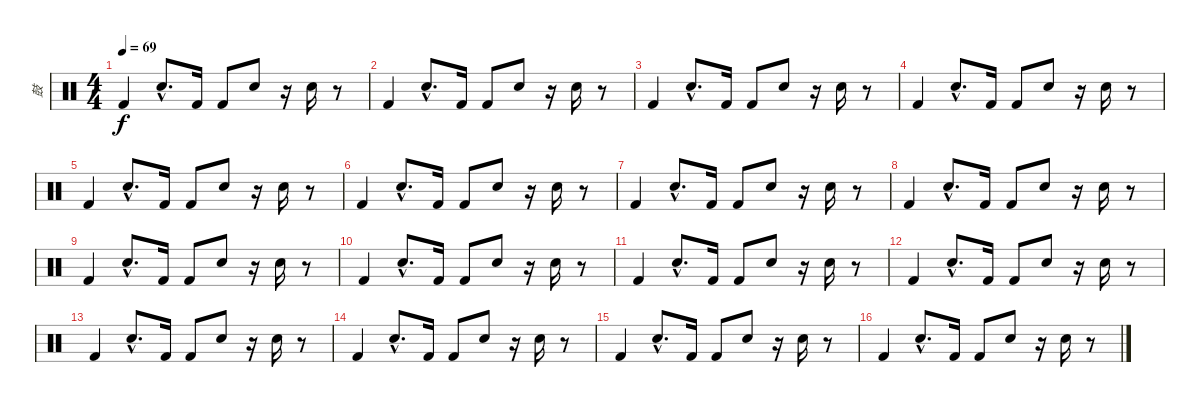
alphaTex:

\track ("鼓" "鼓") {instrument percussion}
\staff {score}
\articulation defaults
\ts (4 4)
\tempo 69
\clef neutral
\ks c "Kick (hit) 2".4{dy f} "Snare (hit) 2"{hac}.8{d} "Kick (hit) 2".16 "Kick (hit) 2".8 "Snare (hit) 2".8
r.16 "Snare (hit) 2".16 r.8 |
"Kick (hit) 2".4 "Snare (hit) 2"{hac}.8{d} "Kick (hit) 2".16 "Kick (hit) 2".8 "Snare (hit) 2".8 r.16 "Snare (hit) 2".16 r.8 |
"Kick (hit) 2".4 "Snare (hit) 2"{hac}.8{d} "Kick (hit) 2".16 "Kick (hit) 2".8 "Snare (hit) 2".8 r.16 "Snare (hit) 2".16 r.8 |
"Kick (hit) 2".4 "Snare (hit) 2"{hac}.8{d} "Kick (hit) 2".16 "Kick (hit) 2".8 "Snare (hit) 2".8 r.16 "Snare (hit) 2".16 r.8 |
"Kick (hit) 2".4 "Snare (hit) 2"{hac}.8{d} "Kick (hit) 2".16 "Kick (hit) 2".8 "Snare (hit) 2".8 r.16 "Snare (hit) 2".16 r.8 |
"Kick (hit) 2".4 "Snare (hit) 2"{hac}.8{d} "Kick (hit) 2".16 "Kick (hit) 2".8 "Snare (hit) 2".8 r.16 "Snare (hit) 2".16 r.8 |
"Kick (hit) 2".4 "Snare (hit) 2"{hac}.8{d} "Kick (hit) 2".16 "Kick (hit) 2".8 "Snare (hit) 2".8 r.16 "Snare (hit) 2".16 r.8 |
"Kick (hit) 2".4 "Snare (hit) 2"{hac}.8{d} "Kick (hit) 2".16 "Kick (hit) 2".8 "Snare (hit) 2".8 r.16 "Snare (hit) 2".16 r.8 |
"Kick (hit) 2".4 "Snare (hit) 2"{hac}.8{d} "Kick (hit) 2".16 "Kick (hit) 2".8 "Snare (hit) 2".8 r.16 "Snare (hit) 2".16 r.8 |
"Kick (hit) 2".4 "Snare (hit) 2"{hac}.8{d} "Kick (hit) 2".16 "Kick (hit) 2".8 "Snare (hit) 2".8 r.16 "Snare (hit) 2".16 r.8 |
"Kick (hit) 2".4 "Snare (hit) 2"{hac}.8{d} "Kick (hit) 2".16 "Kick (hit) 2".8 "Snare (hit) 2".8 r.16 "Snare (hit) 2".16 r.8 |
"Kick (hit) 2".4 "Snare (hit) 2"{hac}.8{d} "Kick (hit) 2".16 "Kick (hit) 2".8 "Snare (hit) 2".8 r.16 "Snare (hit) 2".16 r.8 |
"Kick (hit) 2".4 "Snare (hit) 2"{hac}.8{d} "Kick (hit) 2".16 "Kick (hit) 2".8 "Snare (hit) 2".8 r.16 "Snare (hit) 2".16 r.8 |
"Kick (hit) 2".4 "Snare (hit) 2"{hac}.8{d} "Kick (hit) 2".16 "Kick (hit) 2".8 "Snare (hit) 2".8 r.16 "Snare (hit) 2".16 r.8 |
"Kick (hit) 2".4 "Snare (hit) 2"{hac}.8{d} "Kick (hit) 2".16 "Kick (hit) 2".8 "Snare (hit) 2".8 r.16 "Snare (hit) 2".16 r.8 |
"Kick (hit) 2".4 "Snare (hit) 2"{hac}.8{d} "Kick (hit) 2".16 "Kick (hit) 2".8 "Snare (hit) 2".8 r.16 "Snare (hit) 2".16 r.8
